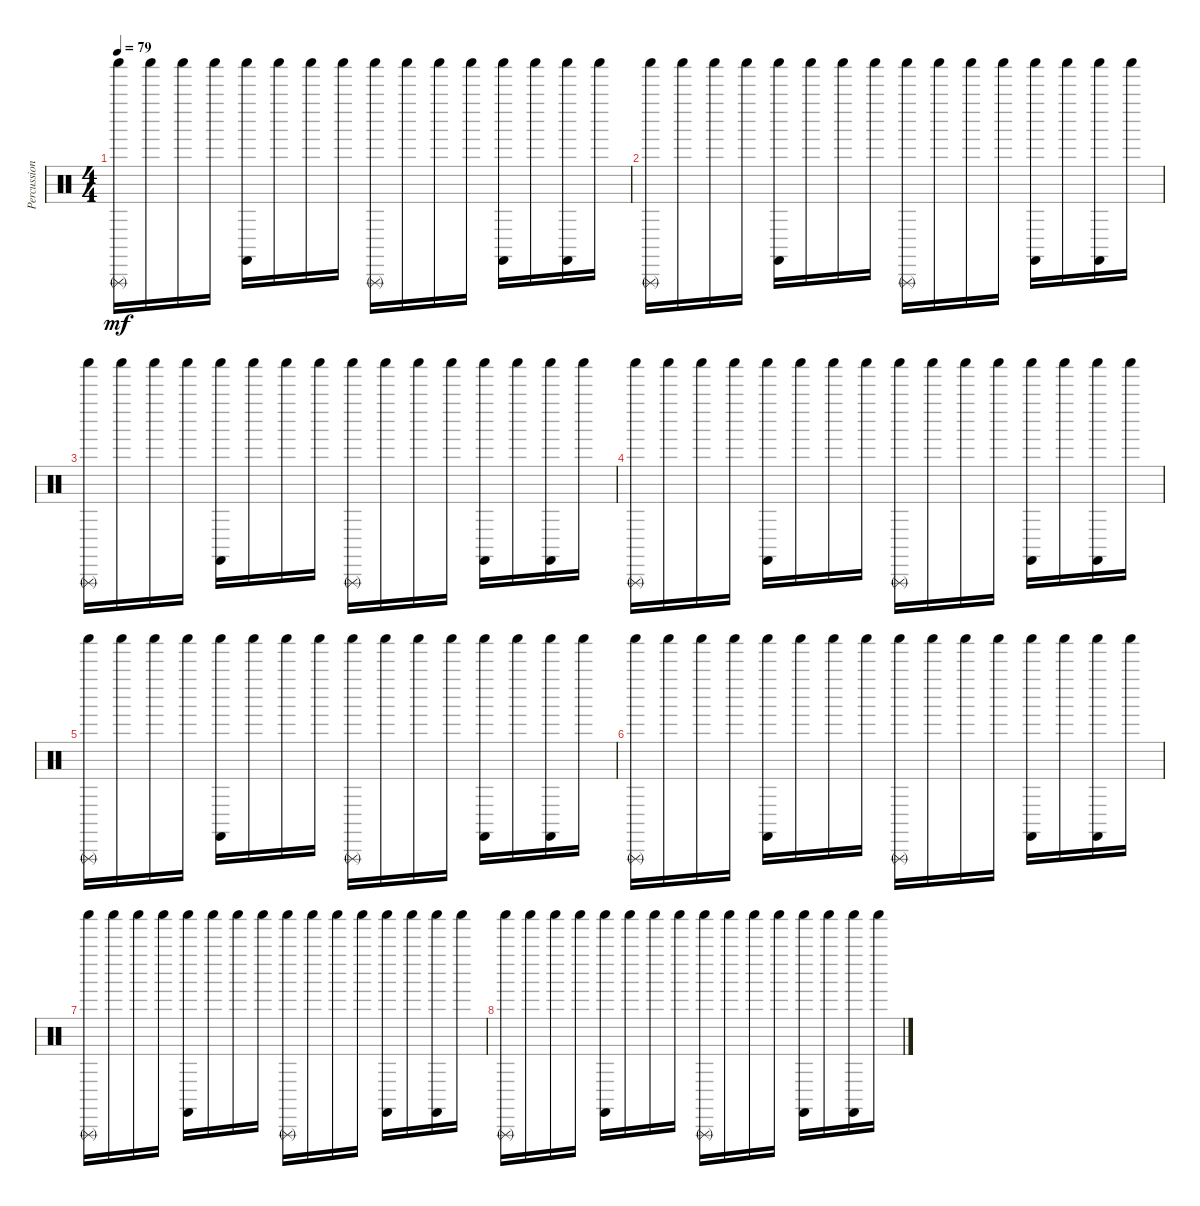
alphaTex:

\track ("Percussion" "Percussion") {instrument percussion}
\staff {score}
\articulation defaults
\ts (4 4)
\tempo 79
\clef neutral
\ks c
("Shaker (hit)" "Triangle (rnute)").16{dy mf volume 9} "Shaker (hit)".16 "Shaker (hit)".16 "Shaker (hit)".16 ("Shaker (hit)" "Castanets (hit)").16 "Shaker (hit)".16 "Shaker (hit)".16 "Shaker (hit)".16 ("Shaker (hit)" "Triangle (rnute)").16 "Shaker (hit)".16 "Shaker (hit)".16 "Shaker (hit)".16 ("Shaker (hit)" "Castanets (hit)").16 "Shaker (hit)".16 ("Shaker (hit)" "Castanets (hit)").16 "Shaker (hit)".16 |
("Shaker (hit)" "Triangle (rnute)").16 "Shaker (hit)".16 "Shaker (hit)".16 "Shaker (hit)".16 ("Shaker (hit)" "Castanets (hit)").16 "Shaker (hit)".16 "Shaker (hit)".16 "Shaker (hit)".16 ("Shaker (hit)" "Triangle (rnute)").16 "Shaker (hit)".16 "Shaker (hit)".16 "Shaker (hit)".16 ("Shaker (hit)" "Castanets (hit)").16 "Shaker (hit)".16 ("Shaker (hit)" "Castanets (hit)").16 "Shaker (hit)".16 |
("Shaker (hit)" "Triangle (rnute)").16 "Shaker (hit)".16 "Shaker (hit)".16 "Shaker (hit)".16 ("Shaker (hit)" "Castanets (hit)").16 "Shaker (hit)".16 "Shaker (hit)".16 "Shaker (hit)".16 ("Shaker (hit)" "Triangle (rnute)").16 "Shaker (hit)".16 "Shaker (hit)".16 "Shaker (hit)".16 ("Shaker (hit)" "Castanets (hit)").16 "Shaker (hit)".16 ("Shaker (hit)" "Castanets (hit)").16 "Shaker (hit)".16 |
("Shaker (hit)" "Triangle (rnute)").16 "Shaker (hit)".16 "Shaker (hit)".16 "Shaker (hit)".16 ("Shaker (hit)" "Castanets (hit)").16 "Shaker (hit)".16 "Shaker (hit)".16 "Shaker (hit)".16 ("Shaker (hit)" "Triangle (rnute)").16 "Shaker (hit)".16 "Shaker (hit)".16 "Shaker (hit)".16 ("Shaker (hit)" "Castanets (hit)").16 "Shaker (hit)".16 ("Shaker (hit)" "Castanets (hit)").16 "Shaker (hit)".16 |
("Shaker (hit)" "Triangle (rnute)").16 "Shaker (hit)".16 "Shaker (hit)".16 "Shaker (hit)".16 ("Shaker (hit)" "Castanets (hit)").16 "Shaker (hit)".16 "Shaker (hit)".16 "Shaker (hit)".16 ("Shaker (hit)" "Triangle (rnute)").16 "Shaker (hit)".16 "Shaker (hit)".16 "Shaker (hit)".16 ("Shaker (hit)" "Castanets (hit)").16 "Shaker (hit)".16 ("Shaker (hit)" "Castanets (hit)").16 "Shaker (hit)".16 |
("Shaker (hit)" "Triangle (rnute)").16 "Shaker (hit)".16 "Shaker (hit)".16 "Shaker (hit)".16 ("Shaker (hit)" "Castanets (hit)").16 "Shaker (hit)".16 "Shaker (hit)".16 "Shaker (hit)".16 ("Shaker (hit)" "Triangle (rnute)").16 "Shaker (hit)".16 "Shaker (hit)".16 "Shaker (hit)".16 ("Shaker (hit)" "Castanets (hit)").16 "Shaker (hit)".16 ("Shaker (hit)" "Castanets (hit)").16 "Shaker (hit)".16 |
("Shaker (hit)" "Triangle (rnute)").16 "Shaker (hit)".16 "Shaker (hit)".16 "Shaker (hit)".16 ("Shaker (hit)" "Castanets (hit)").16 "Shaker (hit)".16 "Shaker (hit)".16 "Shaker (hit)".16 ("Shaker (hit)" "Triangle (rnute)").16 "Shaker (hit)".16 "Shaker (hit)".16 "Shaker (hit)".16 ("Shaker (hit)" "Castanets (hit)").16 "Shaker (hit)".16 ("Shaker (hit)" "Castanets (hit)").16 "Shaker (hit)".16 |
("Shaker (hit)" "Triangle (rnute)").16 "Shaker (hit)".16 "Shaker (hit)".16 "Shaker (hit)".16 ("Shaker (hit)" "Castanets (hit)").16 "Shaker (hit)".16 "Shaker (hit)".16 "Shaker (hit)".16 ("Shaker (hit)" "Triangle (rnute)").16 "Shaker (hit)".16 "Shaker (hit)".16 "Shaker (hit)".16 ("Shaker (hit)" "Castanets (hit)").16 "Shaker (hit)".16 ("Shaker (hit)" "Castanets (hit)").16 "Shaker (hit)".16
